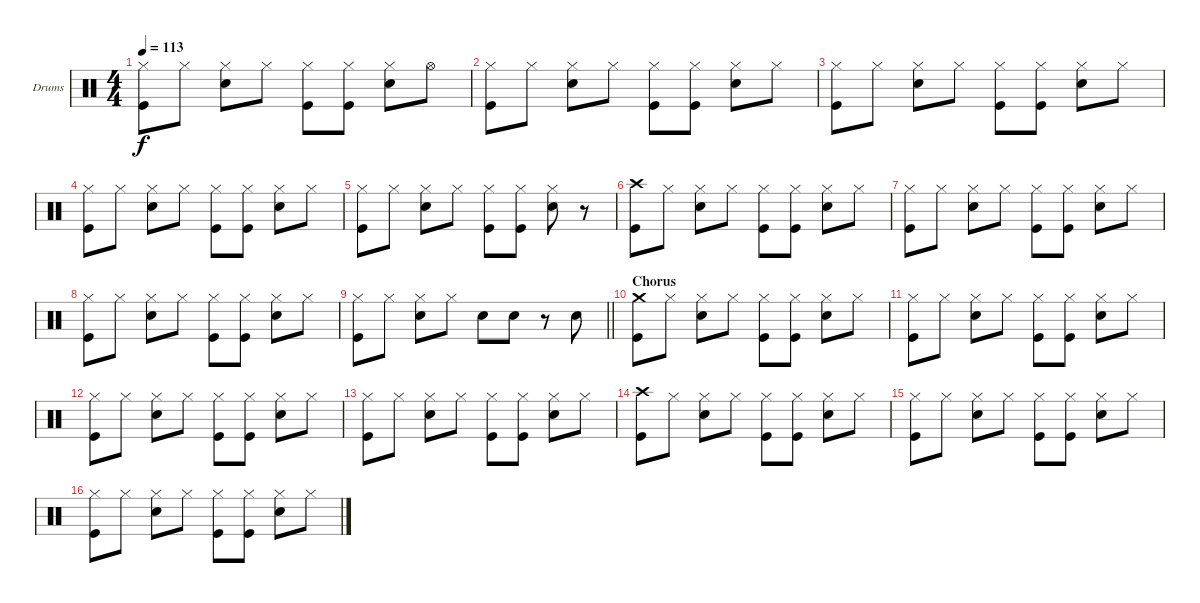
\bracketExtendMode groupsimilarinstruments
\firstSystemTrackNameOrientation horizontal
\otherSystemsTrackNameOrientation horizontal
\track ("Drumkit" "Drums") {instrument percussion}
\staff {score}
\articulation defaults
\ts (4 4)
\tempo 113
\clef neutral
\ks c
("Hi-Hat (closed)" "Kick (hit)").8{dy f} "Hi-Hat (closed)".8 ("Hi-Hat (closed)" "Snare (hit) 2").8 "Hi-Hat (closed)".8 ("Hi-Hat (closed)" "Kick (hit)").8 ("Hi-Hat (closed)" "Kick (hit)").8 ("Hi-Hat (closed)" "Snare (hit) 2").8 "Hi-Hat (open)".8 |
("Hi-Hat (closed)" "Kick (hit)").8 "Hi-Hat (closed)".8 ("Hi-Hat (closed)" "Snare (hit) 2").8 "Hi-Hat (closed)".8 ("Hi-Hat (closed)" "Kick (hit)").8 ("Hi-Hat (closed)" "Kick (hit)").8 ("Hi-Hat (closed)" "Snare (hit) 2").8 "Hi-Hat (closed)".8 |
("Hi-Hat (closed)" "Kick (hit)").8 "Hi-Hat (closed)".8 ("Hi-Hat (closed)" "Snare (hit) 2").8 "Hi-Hat (closed)".8 ("Hi-Hat (closed)" "Kick (hit)").8 ("Hi-Hat (closed)" "Kick (hit)").8 ("Hi-Hat (closed)" "Snare (hit) 2").8 "Hi-Hat (closed)".8 |
("Hi-Hat (closed)" "Kick (hit)").8 "Hi-Hat (closed)".8 ("Hi-Hat (closed)" "Snare (hit) 2").8 "Hi-Hat (closed)".8 ("Hi-Hat (closed)" "Kick (hit)").8 ("Hi-Hat (closed)" "Kick (hit)").8 ("Hi-Hat (closed)" "Snare (hit) 2").8 "Hi-Hat (closed)".8 |
("Hi-Hat (closed)" "Kick (hit)").8 "Hi-Hat (closed)".8 ("Hi-Hat (closed)" "Snare (hit) 2").8 "Hi-Hat (closed)".8 ("Hi-Hat (closed)" "Kick (hit)").8 ("Hi-Hat (closed)" "Kick (hit)").8 ("Hi-Hat (closed)" "Snare (hit) 2").8 r.8 |
("Crash high (hit)" "Kick (hit)").8 "Hi-Hat (closed)".8 ("Hi-Hat (closed)" "Snare (hit) 2").8 "Hi-Hat (closed)".8 ("Hi-Hat (closed)" "Kick (hit)").8 ("Hi-Hat (closed)" "Kick (hit)").8 ("Hi-Hat (closed)" "Snare (hit) 2").8 "Hi-Hat (closed)".8 |
("Hi-Hat (closed)" "Kick (hit)").8 "Hi-Hat (closed)".8 ("Hi-Hat (closed)" "Snare (hit) 2").8 "Hi-Hat (closed)".8 ("Hi-Hat (closed)" "Kick (hit)").8 ("Hi-Hat (closed)" "Kick (hit)").8 ("Hi-Hat (closed)" "Snare (hit) 2").8 "Hi-Hat (closed)".8 |
("Hi-Hat (closed)" "Kick (hit)").8 "Hi-Hat (closed)".8 ("Hi-Hat (closed)" "Snare (hit) 2").8 "Hi-Hat (closed)".8 ("Hi-Hat (closed)" "Kick (hit)").8 ("Hi-Hat (closed)" "Kick (hit)").8 ("Hi-Hat (closed)" "Snare (hit) 2").8 "Hi-Hat (closed)".8 |
\barLineRight lightlight
("Hi-Hat (closed)" "Kick (hit)").8 "Hi-Hat (closed)".8 ("Hi-Hat (closed)" "Snare (hit) 2").8 "Hi-Hat (closed)".8 "Snare (hit) 2".8 "Snare (hit) 2".8 r.8 "Snare (hit) 2".8 |
\section ("" "Chorus")
("Crash medium (hit)" "Kick (hit)").8 "Hi-Hat (closed)".8 ("Hi-Hat (closed)" "Snare (hit) 2").8 "Hi-Hat (closed)".8 ("Hi-Hat (closed)" "Kick (hit)").8 ("Hi-Hat (closed)" "Kick (hit)").8 ("Hi-Hat (closed)" "Snare (hit) 2").8 "Hi-Hat (closed)".8 |
("Hi-Hat (closed)" "Kick (hit)").8 "Hi-Hat (closed)".8 ("Hi-Hat (closed)" "Snare (hit) 2").8 "Hi-Hat (closed)".8 ("Hi-Hat (closed)" "Kick (hit)").8 ("Hi-Hat (closed)" "Kick (hit)").8 ("Hi-Hat (closed)" "Snare (hit) 2").8 "Hi-Hat (closed)".8 |
("Hi-Hat (closed)" "Kick (hit)").8 "Hi-Hat (closed)".8 ("Hi-Hat (closed)" "Snare (hit) 2").8 "Hi-Hat (closed)".8 ("Hi-Hat (closed)" "Kick (hit)").8 ("Hi-Hat (closed)" "Kick (hit)").8 ("Hi-Hat (closed)" "Snare (hit) 2").8 "Hi-Hat (closed)".8 |
("Hi-Hat (closed)" "Kick (hit)").8 "Hi-Hat (closed)".8 ("Hi-Hat (closed)" "Snare (hit) 2").8 "Hi-Hat (closed)".8 ("Hi-Hat (closed)" "Kick (hit)").8 ("Hi-Hat (closed)" "Kick (hit)").8 ("Hi-Hat (closed)" "Snare (hit) 2").8 "Hi-Hat (closed)".8 |
("Crash high (hit)" "Kick (hit)").8 "Hi-Hat (closed)".8 ("Hi-Hat (closed)" "Snare (hit) 2").8 "Hi-Hat (closed)".8 ("Hi-Hat (closed)" "Kick (hit)").8 ("Hi-Hat (closed)" "Kick (hit)").8 ("Hi-Hat (closed)" "Snare (hit) 2").8 "Hi-Hat (closed)".8 |
("Hi-Hat (closed)" "Kick (hit)").8 "Hi-Hat (closed)".8 ("Hi-Hat (closed)" "Snare (hit) 2").8 "Hi-Hat (closed)".8 ("Hi-Hat (closed)" "Kick (hit)").8 ("Hi-Hat (closed)" "Kick (hit)").8 ("Hi-Hat (closed)" "Snare (hit) 2").8 "Hi-Hat (closed)".8 |
("Hi-Hat (closed)" "Kick (hit)").8 "Hi-Hat (closed)".8 ("Hi-Hat (closed)" "Snare (hit) 2").8 "Hi-Hat (closed)".8 ("Hi-Hat (closed)" "Kick (hit)").8 ("Hi-Hat (closed)" "Kick (hit)").8 ("Hi-Hat (closed)" "Snare (hit) 2").8 "Hi-Hat (closed)".8
